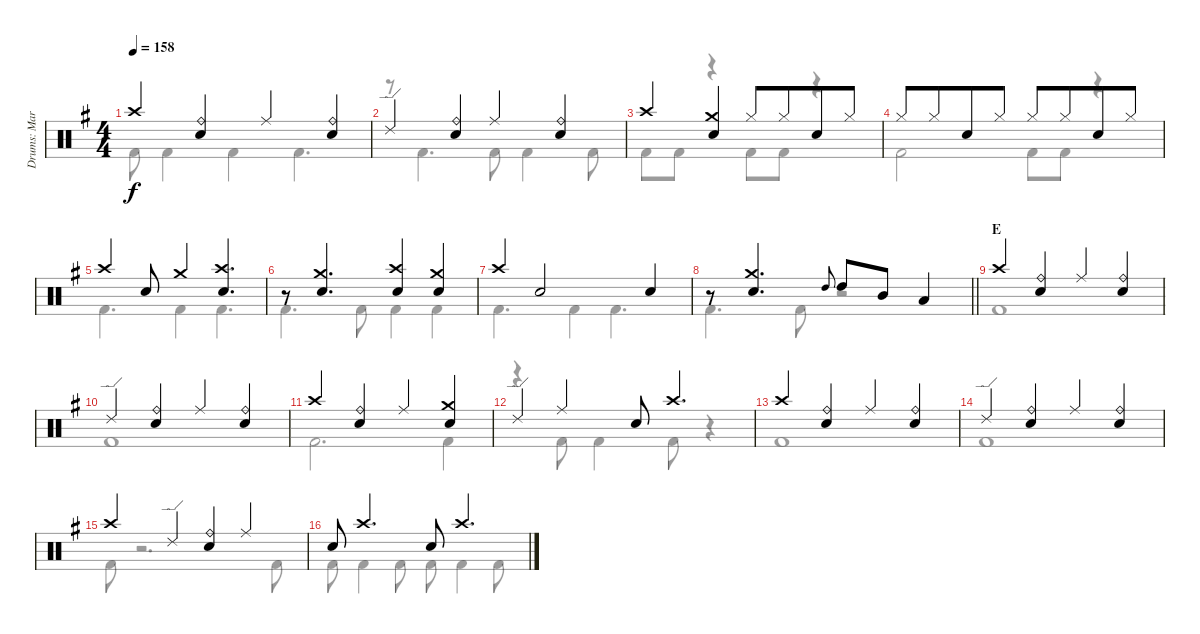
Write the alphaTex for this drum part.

\track ("Drums: Mark" "Drums: Mar") {instrument percussion}
\staff {score}
\articulation defaults
\voice
\ts (4 4)
\tempo 158
\clef neutral
\ks g "Crash high (hit)".4{dy f}
("Ride (bell)" "Snare (hit) 2").4 "Ride (middle)".4 ("Ride (bell)" "Snare (hit) 2").4 |
"Ride (edge) 2".4 ("Ride (bell)" "Snare (hit) 2").4 "Ride (middle)".4 ("Ride (bell)" "Snare (hit) 2").4 |
"Crash high (hit)".4 ("Crash medium (hit)" "Snare (hit) 2").4 "Hi-Hat (closed)".8 "Hi-Hat (closed)".8{beam merge} "Snare (hit) 2".8 "Hi-Hat (closed)".8 |
"Hi-Hat (closed)".8 "Hi-Hat (closed)".8{beam merge} "Snare (hit) 2".8 "Hi-Hat (closed)".8 "Hi-Hat (closed)".8 "Hi-Hat (closed)".8{beam merge} "Snare (hit) 2".8 "Hi-Hat (closed)".8 |
"Crash high (hit)".4 "Snare (hit) 2".8 "Crash medium (hit)".4 ("Crash high (hit)" "Snare (hit) 2").4{d} |
r.8 ("Crash medium (hit)" "Snare (hit) 2").4{d} ("Crash high (hit)" "Snare (hit) 2").4 ("Crash medium (hit)" "Snare (hit) 2").4 |
"Crash high (hit)".4 "Snare (hit) 2".2 "Snare (hit) 2".4 |
\barLineRight lightlight
r.8 ("Crash medium (hit)" "Snare (hit) 2").4{d} "High Tom (hit)".8{gr onbeat} "High Tom (hit)".8 "Mid Tom (hit)".8 "Low Tom (hit)".4 |
\section ("" "E")
"Crash high (hit)".4 ("Ride (bell)" "Snare (hit) 2").4 "Ride (middle)".4 ("Ride (bell)" "Snare (hit) 2").4 |
"Ride (edge) 2".4 ("Ride (bell)" "Snare (hit) 2").4 "Ride (middle)".4 ("Ride (bell)" "Snare (hit) 2").4 |
"Crash high (hit)".4 ("Ride (bell)" "Snare (hit) 2").4 "Ride (middle)".4 ("Crash medium (hit)" "Snare (hit) 2").4 |
"Ride (edge) 2".4 "Ride (middle)".4 "Snare (hit) 2".8 "Crash high (hit)".4{d} |
"Crash high (hit)".4 ("Ride (bell)" "Snare (hit) 2").4 "Ride (middle)".4 ("Ride (bell)" "Snare (hit) 2").4 |
"Ride (edge) 2".4 ("Ride (bell)" "Snare (hit) 2").4 "Ride (middle)".4 ("Ride (bell)" "Snare (hit) 2").4 |
"Crash high (hit)".4 "Ride (edge) 2".4 ("Ride (bell)" "Snare (hit) 2").4 "Ride (middle)".4 |
"Snare (hit) 2".8 "Crash high (hit)".4{d} "Snare (hit) 2".8 "Crash high (hit)".4{d}
\voice
\clef neutral
\ottava regular
\simile none
\ks g "Kick (hit) 2".8{dy f} "Kick (hit) 2".4 "Kick (hit) 2".4 "Kick (hit) 2".4{d}
|
r.8 "Kick (hit) 2".4{d} "Kick (hit) 2".8 "Kick (hit) 2".4 "Kick (hit) 2".8 |
"Kick (hit) 2".8 "Kick (hit) 2".8 r.4 "Kick (hit) 2".8 "Kick (hit) 2".8 r.4 |
"Kick (hit) 2".2 "Kick (hit) 2".8 "Kick (hit) 2".8 r.4 |
"Kick (hit) 2".4{d} "Kick (hit) 2".4 "Kick (hit) 2".4{d} |
"Kick (hit) 2".4{d} "Kick (hit) 2".8 "Kick (hit) 2".4 "Kick (hit) 2".4 |
"Kick (hit) 2".4{d} "Kick (hit) 2".4 "Kick (hit) 2".4{d} |
\barLineRight lightlight "Kick (hit) 2".4{d} "Kick (hit) 2".8
r.2 |
"Kick (hit) 2".1 |
"Kick (hit) 2".1 |
"Kick (hit) 2".2{d} "Kick (hit) 2".4 |
r.4 "Kick (hit) 2".8 "Kick (hit) 2".4 "Kick (hit) 2".8 r.4 |
"Kick (hit) 2".1 |
"Kick (hit) 2".1 |
"Kick (hit) 2".8 r.2{d} "Kick (hit) 2".8 |
"Kick (hit) 2".8 "Kick (hit) 2".4 "Kick (hit) 2".8 "Kick (hit) 2".8 "Kick (hit) 2".4 "Kick (hit) 2".8
